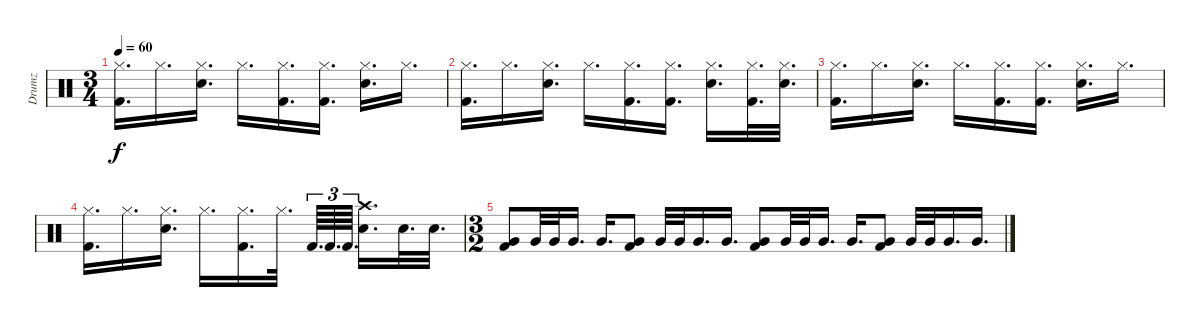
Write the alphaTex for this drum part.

\track ("Drumz" "Drumz") {instrument percussion}
\staff {score}
\articulation defaults
\ts (3 4)
\tempo 60
\clef neutral
\ks c
("Hi-Hat (closed)" "Kick (hit) 2").16{d dy f} "Hi-Hat (closed)".16{d} ("Hi-Hat (closed)" "Snare (hit) 2").16{d} "Hi-Hat (closed)".16{d} ("Hi-Hat (closed)" "Kick (hit) 2").16{d} ("Hi-Hat (closed)" "Kick (hit) 2").16{d} ("Hi-Hat (closed)" "Snare (hit) 2").16{d} "Hi-Hat (closed)".16{d} |
("Hi-Hat (closed)" "Kick (hit) 2").16{d} "Hi-Hat (closed)".16{d} ("Hi-Hat (closed)" "Snare (hit) 2").16{d} "Hi-Hat (closed)".16{d} ("Hi-Hat (closed)" "Kick (hit) 2").16{d} ("Hi-Hat (closed)" "Kick (hit) 2").16{d} ("Hi-Hat (closed)" "Snare (hit) 2").16{d} ("Hi-Hat (closed)" "Kick (hit) 2").32{d} ("Hi-Hat (closed)" "Snare (hit) 2").32{d} |
("Hi-Hat (closed)" "Kick (hit) 2").16{d} "Hi-Hat (closed)".16{d} ("Hi-Hat (closed)" "Snare (hit) 2").16{d} "Hi-Hat (closed)".16{d} ("Hi-Hat (closed)" "Kick (hit) 2").16{d} ("Hi-Hat (closed)" "Kick (hit) 2").16{d} ("Hi-Hat (closed)" "Snare (hit) 2").16{d} "Hi-Hat (closed)".16{d} |
("Hi-Hat (closed)" "Kick (hit) 2").16{d} "Hi-Hat (closed)".16{d} ("Hi-Hat (closed)" "Snare (hit) 2").16{d} "Hi-Hat (closed)".16{d} ("Hi-Hat (closed)" "Kick (hit) 2").16{d} "Hi-Hat (closed)".32{d} "Kick (hit) 2".64{d tu (3 2)} "Kick (hit) 2".64{d tu (3 2)} "Kick (hit) 2".64{d tu (3 2) beam splitsecondary} ("Crash high (hit)" "Snare (hit) 2").16{d} "Snare (hit) 2".32{d} "Snare (hit) 2".32{d} |
\ts (3 2)
("Very Low Tom (hit)" "Kick (hit) 2").8 "Very Low Tom (hit)".32 "Very Low Tom (hit)".32 "Very Low Tom (hit)".16{d} "Very Low Tom (hit)".16{d} ("Very Low Tom (hit)" "Kick (hit) 2").8 "Very Low Tom (hit)".32 "Very Low Tom (hit)".32 "Very Low Tom (hit)".16{d} "Very Low Tom (hit)".16{d} ("Very Low Tom (hit)" "Kick (hit) 2").8 "Very Low Tom (hit)".32 "Very Low Tom (hit)".32 "Very Low Tom (hit)".16{d} "Very Low Tom (hit)".16{d} ("Very Low Tom (hit)" "Kick (hit) 2").8 "Very Low Tom (hit)".32 "Very Low Tom (hit)".32 "Very Low Tom (hit)".16{d} "Very Low Tom (hit)".16{d}
